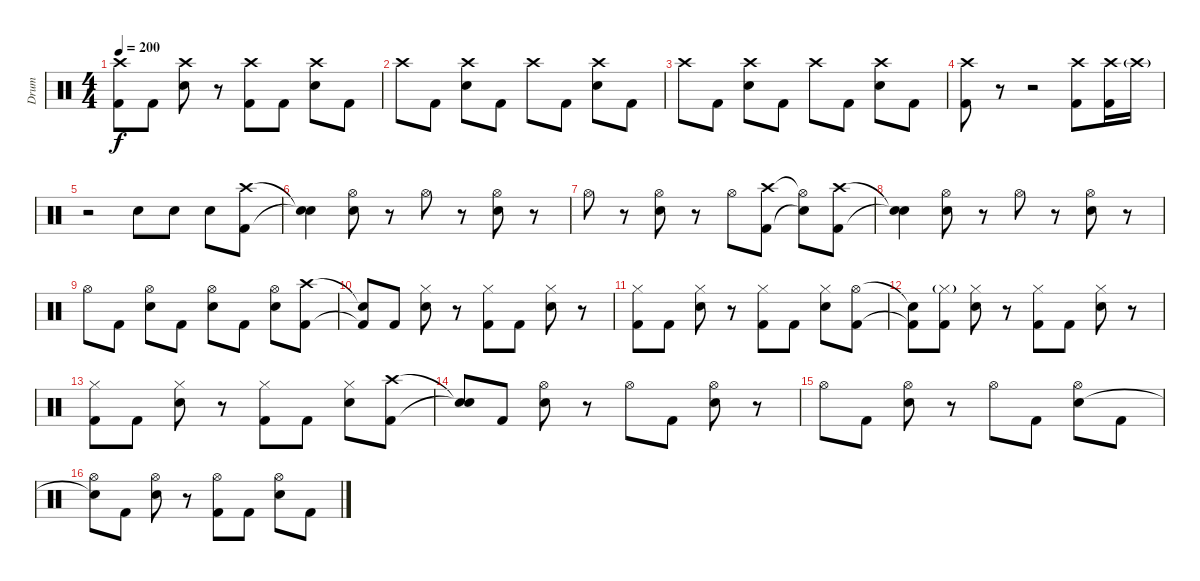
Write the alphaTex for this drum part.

\track ("Drum" "Drum") {instrument percussion}
\staff {score}
\articulation defaults
\ts (4 4)
\tempo 200
\clef neutral
\ks c
("Crash high (hit)" "Kick (hit) 2").8{dy f} "Kick (hit) 2".8 ("Crash high (hit)" "Electric Snare (hit)").8 r.8 ("Crash high (hit)" "Kick (hit) 2").8 "Kick (hit) 2".8 ("Crash high (hit)" "Electric Snare (hit)").8 "Kick (hit) 2".8 |
"Crash high (hit)".8 "Kick (hit) 2".8 ("Crash high (hit)" "Electric Snare (hit)").8 "Kick (hit) 2".8 "Crash high (hit)".8 "Kick (hit) 2".8 ("Crash high (hit)" "Electric Snare (hit)").8 "Kick (hit) 2".8 |
"Crash high (hit)".8 "Kick (hit) 2".8 ("Crash high (hit)" "Electric Snare (hit)").8 "Kick (hit) 2".8 "Crash high (hit)".8 "Kick (hit) 2".8 ("Crash high (hit)" "Electric Snare (hit)").8 "Kick (hit) 2".8 |
("Crash high (hit)" "Kick (hit) 2").8 r.8 r.2 ("Crash high (hit)" "Kick (hit) 2").8 ("Crash high (hit)" "Kick (hit) 2").16 "Crash high (hit)"{g}.16 |
r.2 "Electric Snare (hit)".8 "Electric Snare (hit)".8 "Electric Snare (hit)".8 ("Crash high (hit)" "Kick (hit) 2").8 |
("Snare (hit)"{t} "Snare (hit)"{t}).4 ("Hi-Hat (open)" "Electric Snare (hit)").8 r.8 "Hi-Hat (open)".8 r.8 ("Hi-Hat (open)" "Electric Snare (hit)").8 r.8 |
"Hi-Hat (open)".8 r.8 ("Hi-Hat (open)" "Electric Snare (hit)").8 r.8 "Hi-Hat (open)".8 ("Crash high (hit)" "Kick (hit) 2").8 ("Hi-Hat (open)"{t} "Snare (hit)"{t}).8 ("Crash high (hit)" "Kick (hit) 2").8 |
("Snare (hit)"{t} "Snare (hit)"{t}).4 ("Hi-Hat (open)" "Electric Snare (hit)").8 r.8 "Hi-Hat (open)".8 r.8 ("Hi-Hat (open)" "Electric Snare (hit)").8 r.8 |
"Hi-Hat (open)".8 "Kick (hit) 2".8 ("Hi-Hat (open)" "Electric Snare (hit)").8 "Kick (hit) 2".8 ("Hi-Hat (open)" "Electric Snare (hit)").8 "Kick (hit) 2".8 ("Hi-Hat (open)" "Electric Snare (hit)").8 ("Crash high (hit)" "Kick (hit) 2").8 |
("Snare (hit)"{t} "Kick (hit) 2"{t}).8 "Kick (hit) 2".8 ("Hi-Hat (closed)" "Electric Snare (hit)").8 r.8 ("Hi-Hat (closed)" "Kick (hit) 2").8 "Kick (hit) 2".8 ("Hi-Hat (closed)" "Electric Snare (hit)").8 r.8 |
("Hi-Hat (closed)" "Kick (hit) 2").8 "Kick (hit) 2".8 ("Hi-Hat (closed)" "Electric Snare (hit)").8 r.8 ("Hi-Hat (closed)" "Kick (hit) 2").8 "Kick (hit) 2".8 ("Hi-Hat (closed)" "Electric Snare (hit)").8 ("Hi-Hat (open)" "Kick (hit) 2").8 |
("Snare (hit)"{t} "Kick (hit) 2"{t}).8 ("Hi-Hat (closed)"{g} "Kick (hit) 2").8 ("Hi-Hat (closed)" "Electric Snare (hit)").8 r.8 ("Hi-Hat (closed)" "Kick (hit) 2").8 "Kick (hit) 2".8 ("Hi-Hat (closed)" "Electric Snare (hit)").8 r.8 |
("Hi-Hat (closed)" "Kick (hit) 2").8 "Kick (hit) 2".8 ("Hi-Hat (closed)" "Electric Snare (hit)").8 r.8 ("Hi-Hat (closed)" "Kick (hit) 2").8 "Kick (hit) 2".8 ("Hi-Hat (closed)" "Electric Snare (hit)").8 ("Crash high (hit)" "Kick (hit) 2").8 |
("Snare (hit)"{t} "Snare (hit)"{t}).8 "Kick (hit) 2".8 ("Hi-Hat (open)" "Electric Snare (hit)").8 r.8 "Hi-Hat (open)".8 "Kick (hit) 2".8 ("Hi-Hat (open)" "Electric Snare (hit)").8 r.8 |
"Hi-Hat (open)".8 "Kick (hit) 2".8 ("Hi-Hat (open)" "Electric Snare (hit)").8 r.8 "Hi-Hat (open)".8 "Kick (hit) 2".8 ("Hi-Hat (open)" "Electric Snare (hit)").8 "Kick (hit) 2".8 |
("Hi-Hat (open)" "Snare (hit)"{t}).8 "Kick (hit) 2".8 ("Hi-Hat (open)" "Electric Snare (hit)").8 r.8 ("Hi-Hat (open)" "Kick (hit) 2").8 "Kick (hit) 2".8 ("Hi-Hat (open)" "Electric Snare (hit)").8 "Kick (hit) 2".8
